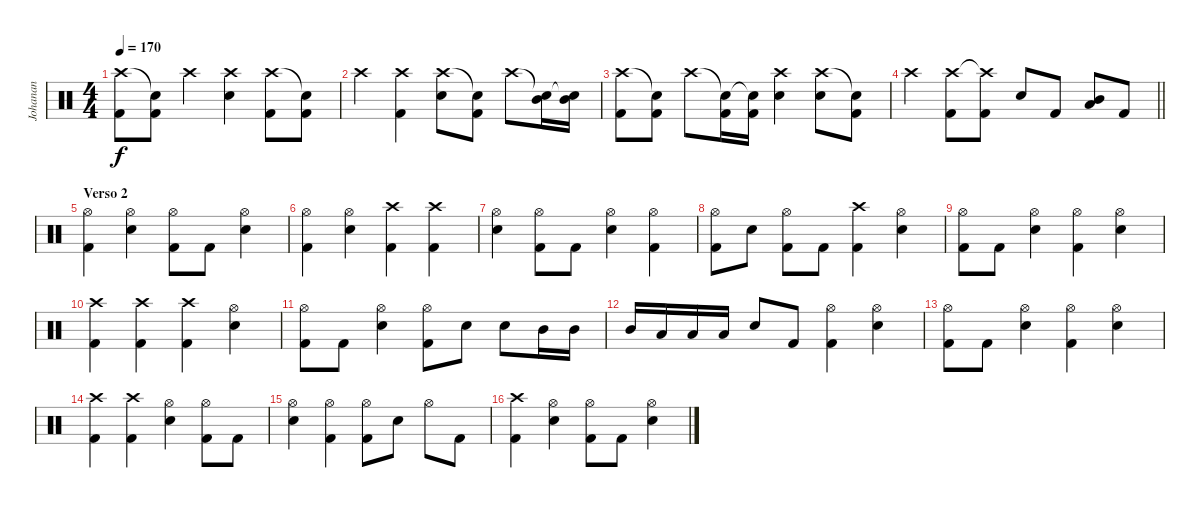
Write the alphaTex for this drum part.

\track ("Johanan" "Johanan") {instrument percussion}
\staff {score}
\articulation defaults
\ts (4 4)
\tempo 170
\clef neutral
\ks c
("Crash high (hit)" "Kick (hit) 2").8{dy f} ("Snare (hit)"{t} "Kick (hit) 2").8 "Crash high (hit)".4 ("Crash high (hit)" "Electric Snare (hit)").4 ("Crash high (hit)" "Kick (hit) 2").8 ("Snare (hit)"{t} "Kick (hit) 2").8 |
"Crash high (hit)".4 ("Crash high (hit)" "Kick (hit) 2").4 ("Crash high (hit)" "Electric Snare (hit)").8 ("Snare (hit)"{t} "Kick (hit) 2").8 "Crash high (hit)".8 ("Snare (hit)"{t} "Mid Tom (hit)").16 ("Snare (hit)"{t} "Mid Tom (hit)").16 |
("Crash high (hit)" "Kick (hit) 2").8 ("Snare (hit)"{t} "Kick (hit) 2").8 "Crash high (hit)".8 ("Snare (hit)"{t} "Kick (hit) 2").16 ("Snare (hit)"{t} "Kick (hit) 2").16 ("Crash high (hit)" "Electric Snare (hit)").4 ("Crash high (hit)" "Electric Snare (hit)").8 ("Snare (hit)"{t} "Kick (hit) 2").8 |
\barLineRight lightlight "Crash high (hit)".4
("Crash high (hit)" "Kick (hit) 2").8 ("Crash high (hit)"{t} "Kick (hit) 2").8 "Electric Snare (hit)".8 "Kick (hit) 2".8 ("Mid Tom (hit)" "Low Tom (hit)").8 "Kick (hit) 2".8 |
\section ("" "Verso 2")
("Hi-Hat (open)" "Kick (hit) 2").4 ("Hi-Hat (open)" "Electric Snare (hit)").4 ("Hi-Hat (open)" "Kick (hit) 2").8 "Kick (hit) 2".8 ("Hi-Hat (open)" "Electric Snare (hit)").4 |
("Hi-Hat (open)" "Kick (hit) 2").4 ("Hi-Hat (open)" "Electric Snare (hit)").4 ("Crash high (hit)" "Kick (hit) 2").4 ("Crash high (hit)" "Kick (hit) 2").4 |
("Hi-Hat (open)" "Electric Snare (hit)").4 ("Hi-Hat (open)" "Kick (hit) 2").8 "Kick (hit) 2".8 ("Hi-Hat (open)" "Electric Snare (hit)").4 ("Hi-Hat (open)" "Kick (hit) 2").4 |
("Hi-Hat (open)" "Kick (hit) 2").8 "Electric Snare (hit)".8 ("Hi-Hat (open)" "Kick (hit) 2").8 "Kick (hit) 2".8 ("Crash high (hit)" "Kick (hit) 2").4 ("Hi-Hat (open)" "Electric Snare (hit)").4 |
("Hi-Hat (open)" "Kick (hit) 2").8 "Kick (hit) 2".8 ("Hi-Hat (open)" "Electric Snare (hit)").4 ("Hi-Hat (open)" "Kick (hit) 2").4 ("Hi-Hat (open)" "Electric Snare (hit)").4 |
("Crash high (hit)" "Kick (hit) 2").4 ("Crash high (hit)" "Kick (hit) 2").4 ("Crash high (hit)" "Kick (hit) 2").4 ("Hi-Hat (open)" "Electric Snare (hit)").4 |
("Hi-Hat (open)" "Kick (hit) 2").8 "Kick (hit) 2".8 ("Hi-Hat (open)" "Electric Snare (hit)").4 ("Hi-Hat (open)" "Kick (hit) 2").8 "Electric Snare (hit)".8 "Electric Snare (hit)".8 "Mid Tom (hit)".16 "Mid Tom (hit)".16 |
"Mid Tom (hit)".16 "Low Tom (hit)".16 "Low Tom (hit)".16 "Low Tom (hit)".16 "Electric Snare (hit)".8 "Kick (hit) 2".8 ("Hi-Hat (open)" "Kick (hit) 2").4 ("Hi-Hat (open)" "Electric Snare (hit)").4 |
("Hi-Hat (open)" "Kick (hit) 2").8 "Kick (hit) 2".8 ("Hi-Hat (open)" "Electric Snare (hit)").4 ("Hi-Hat (open)" "Kick (hit) 2").4 ("Hi-Hat (open)" "Electric Snare (hit)").4 |
("Crash high (hit)" "Kick (hit) 2").4 ("Crash high (hit)" "Kick (hit) 2").4 ("Hi-Hat (open)" "Electric Snare (hit)").4 ("Hi-Hat (open)" "Kick (hit) 2").8 "Kick (hit) 2".8 |
("Hi-Hat (open)" "Electric Snare (hit)").4 ("Hi-Hat (open)" "Kick (hit) 2").4 ("Hi-Hat (open)" "Kick (hit) 2").8 "Electric Snare (hit)".8 "Hi-Hat (open)".8 "Kick (hit) 2".8 |
("Crash high (hit)" "Kick (hit) 2").4 ("Hi-Hat (open)" "Electric Snare (hit)").4 ("Hi-Hat (open)" "Kick (hit) 2").8 "Kick (hit) 2".8 ("Hi-Hat (open)" "Electric Snare (hit)").4
